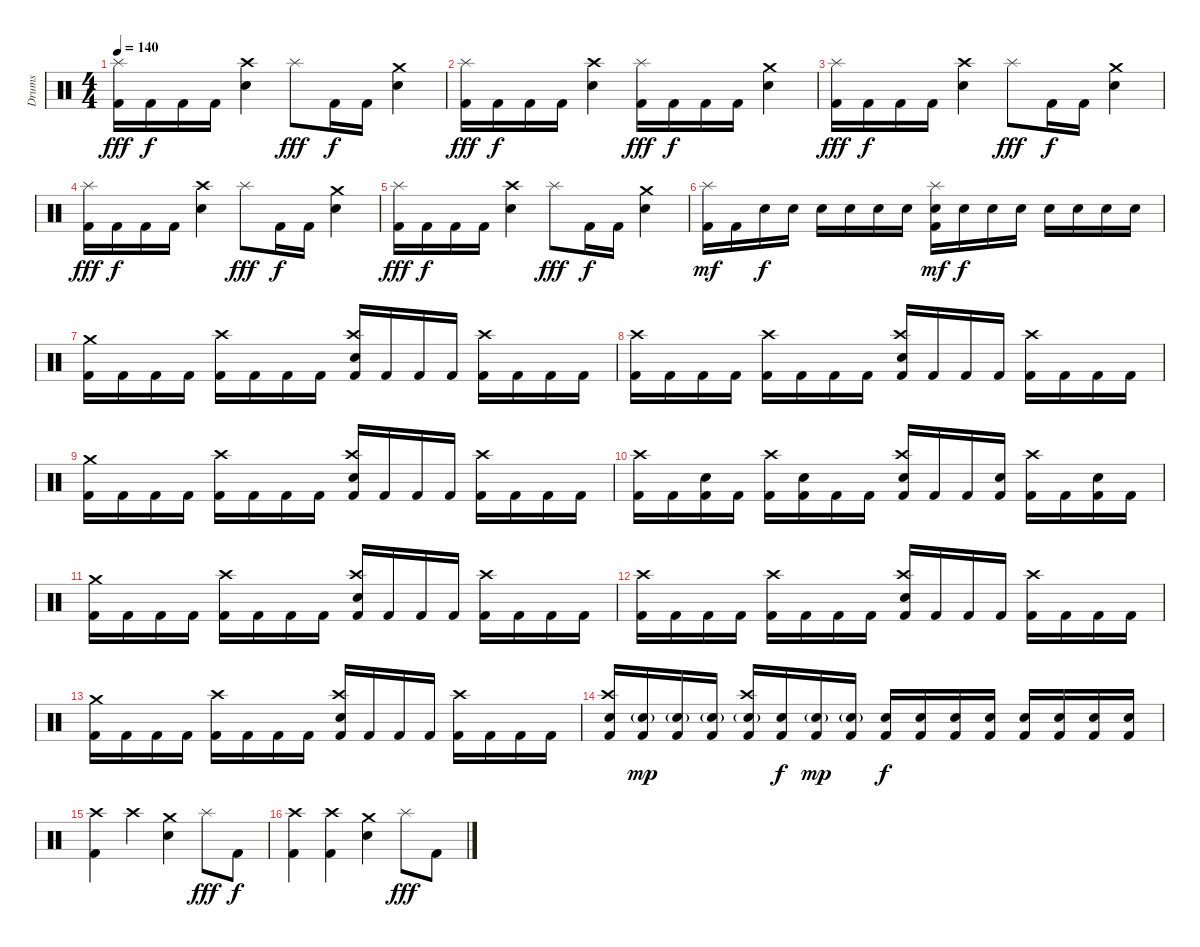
\track ("Drums" "Drums") {instrument percussion}
\staff {score}
\articulation defaults
\ts (4 4)
\tempo 140
\clef neutral
\ks c
("Splash (hit)" "Kick (hit) 2").16{dy fff} "Kick (hit) 2".16{dy f} "Kick (hit) 2".16 "Kick (hit) 2".16 ("Crash high (hit)" "Electric Snare (hit)").4 "Splash (hit)".8{dy fff} "Kick (hit) 2".16{dy f} "Kick (hit) 2".16 ("Crash medium (hit)" "Electric Snare (hit)").4 |
("Splash (hit)" "Kick (hit) 2").16{dy fff} "Kick (hit) 2".16{dy f} "Kick (hit) 2".16 "Kick (hit) 2".16 ("Crash high (hit)" "Electric Snare (hit)").4 ("Splash (hit)" "Kick (hit) 2").16{dy fff} "Kick (hit) 2".16{dy f} "Kick (hit) 2".16 "Kick (hit) 2".16 ("Crash medium (hit)" "Electric Snare (hit)").4 |
("Splash (hit)" "Kick (hit) 2").16{dy fff} "Kick (hit) 2".16{dy f} "Kick (hit) 2".16 "Kick (hit) 2".16 ("Crash high (hit)" "Electric Snare (hit)").4 "Splash (hit)".8{dy fff} "Kick (hit) 2".16{dy f} "Kick (hit) 2".16 ("Crash medium (hit)" "Electric Snare (hit)").4 |
("Splash (hit)" "Kick (hit) 2").16{dy fff} "Kick (hit) 2".16{dy f} "Kick (hit) 2".16 "Kick (hit) 2".16 ("Crash high (hit)" "Electric Snare (hit)").4 "Splash (hit)".8{dy fff} "Kick (hit) 2".16{dy f} "Kick (hit) 2".16 ("Crash medium (hit)" "Electric Snare (hit)").4 |
("Splash (hit)" "Kick (hit) 2").16{dy fff} "Kick (hit) 2".16{dy f} "Kick (hit) 2".16 "Kick (hit) 2".16 ("Crash high (hit)" "Electric Snare (hit)").4 "Splash (hit)".8{dy fff} "Kick (hit) 2".16{dy f} "Kick (hit) 2".16 ("Crash medium (hit)" "Electric Snare (hit)").4 |
("Splash (hit)" "Kick (hit) 2").16{dy mf} "Kick (hit) 2".16 "Electric Snare (hit)".16{dy f} "Electric Snare (hit)".16 "Electric Snare (hit)".16 "Electric Snare (hit)".16 "Electric Snare (hit)".16 "Electric Snare (hit)".16 ("Splash (hit)" "Electric Snare (hit)" "Kick (hit) 2").16{dy mf} "Electric Snare (hit)".16{dy f} "Electric Snare (hit)".16 "Electric Snare (hit)".16 "Electric Snare (hit)".16 "Electric Snare (hit)".16 "Electric Snare (hit)".16 "Electric Snare (hit)".16 |
("Crash medium (hit)" "Kick (hit) 2").16 "Kick (hit) 2".16 "Kick (hit) 2".16 "Kick (hit) 2".16 ("Crash high (hit)" "Kick (hit) 2").16 "Kick (hit) 2".16 "Kick (hit) 2".16 "Kick (hit) 2".16 ("Crash high (hit)" "Electric Snare (hit)" "Kick (hit) 2").16 "Kick (hit) 2".16 "Kick (hit) 2".16 "Kick (hit) 2".16 ("Crash high (hit)" "Kick (hit) 2").16 "Kick (hit) 2".16 "Kick (hit) 2".16 "Kick (hit) 2".16 |
("Crash high (hit)" "Kick (hit) 2").16 "Kick (hit) 2".16 "Kick (hit) 2".16 "Kick (hit) 2".16 ("Crash high (hit)" "Kick (hit) 2").16 "Kick (hit) 2".16 "Kick (hit) 2".16 "Kick (hit) 2".16 ("Crash high (hit)" "Electric Snare (hit)" "Kick (hit) 2").16 "Kick (hit) 2".16 "Kick (hit) 2".16 "Kick (hit) 2".16 ("Crash high (hit)" "Kick (hit) 2").16 "Kick (hit) 2".16 "Kick (hit) 2".16 "Kick (hit) 2".16 |
("Crash medium (hit)" "Kick (hit) 2").16 "Kick (hit) 2".16 "Kick (hit) 2".16 "Kick (hit) 2".16 ("Crash high (hit)" "Kick (hit) 2").16 "Kick (hit) 2".16 "Kick (hit) 2".16 "Kick (hit) 2".16 ("Crash high (hit)" "Electric Snare (hit)" "Kick (hit) 2").16 "Kick (hit) 2".16 "Kick (hit) 2".16 "Kick (hit) 2".16 ("Crash high (hit)" "Kick (hit) 2").16 "Kick (hit) 2".16 "Kick (hit) 2".16 "Kick (hit) 2".16 |
("Crash high (hit)" "Kick (hit) 2").16 "Kick (hit) 2".16 ("Electric Snare (hit)" "Kick (hit) 2").16 "Kick (hit) 2".16 ("Crash high (hit)" "Kick (hit) 2").16 ("Electric Snare (hit)" "Kick (hit) 2").16 "Kick (hit) 2".16 "Kick (hit) 2".16 ("Crash high (hit)" "Electric Snare (hit)" "Kick (hit) 2").16 "Kick (hit) 2".16 "Kick (hit) 2".16 ("Electric Snare (hit)" "Kick (hit) 2").16 ("Crash high (hit)" "Kick (hit) 2").16 "Kick (hit) 2".16 ("Electric Snare (hit)" "Kick (hit) 2").16 "Kick (hit) 2".16 |
("Crash medium (hit)" "Kick (hit) 2").16 "Kick (hit) 2".16 "Kick (hit) 2".16 "Kick (hit) 2".16 ("Crash high (hit)" "Kick (hit) 2").16 "Kick (hit) 2".16 "Kick (hit) 2".16 "Kick (hit) 2".16 ("Crash high (hit)" "Electric Snare (hit)" "Kick (hit) 2").16 "Kick (hit) 2".16 "Kick (hit) 2".16 "Kick (hit) 2".16 ("Crash high (hit)" "Kick (hit) 2").16 "Kick (hit) 2".16 "Kick (hit) 2".16 "Kick (hit) 2".16 |
("Crash high (hit)" "Kick (hit) 2").16 "Kick (hit) 2".16 "Kick (hit) 2".16 "Kick (hit) 2".16 ("Crash high (hit)" "Kick (hit) 2").16 "Kick (hit) 2".16 "Kick (hit) 2".16 "Kick (hit) 2".16 ("Crash high (hit)" "Electric Snare (hit)" "Kick (hit) 2").16 "Kick (hit) 2".16 "Kick (hit) 2".16 "Kick (hit) 2".16 ("Crash high (hit)" "Kick (hit) 2").16 "Kick (hit) 2".16 "Kick (hit) 2".16 "Kick (hit) 2".16 |
("Crash medium (hit)" "Kick (hit) 2").16 "Kick (hit) 2".16 "Kick (hit) 2".16 "Kick (hit) 2".16 ("Crash high (hit)" "Kick (hit) 2").16 "Kick (hit) 2".16 "Kick (hit) 2".16 "Kick (hit) 2".16 ("Crash high (hit)" "Electric Snare (hit)" "Kick (hit) 2").16 "Kick (hit) 2".16 "Kick (hit) 2".16 "Kick (hit) 2".16 ("Crash high (hit)" "Kick (hit) 2").16 "Kick (hit) 2".16 "Kick (hit) 2".16 "Kick (hit) 2".16 |
("Crash high (hit)" "Electric Snare (hit)" "Kick (hit) 2").16 ("Electric Snare (hit)"{g} "Kick (hit) 2").16{dy mp} ("Electric Snare (hit)"{g} "Kick (hit) 2").16 ("Electric Snare (hit)"{g} "Kick (hit) 2").16 ("Crash high (hit)" "Electric Snare (hit)"{g} "Kick (hit) 2").16 ("Electric Snare (hit)" "Kick (hit) 2").16{dy f} ("Electric Snare (hit)"{g} "Kick (hit) 2").16{dy mp} ("Electric Snare (hit)"{g} "Kick (hit) 2").16 ("Electric Snare (hit)" "Kick (hit) 2").16{dy f} ("Electric Snare (hit)" "Kick (hit) 2").16 ("Electric Snare (hit)" "Kick (hit) 2").16 ("Electric Snare (hit)" "Kick (hit) 2").16 ("Electric Snare (hit)" "Kick (hit) 2").16 ("Electric Snare (hit)" "Kick (hit) 2").16 ("Electric Snare (hit)" "Kick (hit) 2").16 ("Electric Snare (hit)" "Kick (hit) 2").16 |
("Crash high (hit)" "Kick (hit) 2").4 "Crash high (hit)".4 ("Crash medium (hit)" "Electric Snare (hit)").4 "Splash (hit)".8{dy fff} "Kick (hit) 2".8{dy f} |
("Crash high (hit)" "Kick (hit) 2").4 ("Crash high (hit)" "Kick (hit) 2").4 ("Crash medium (hit)" "Electric Snare (hit)").4 "Splash (hit)".8{dy fff} "Kick (hit) 2".8
